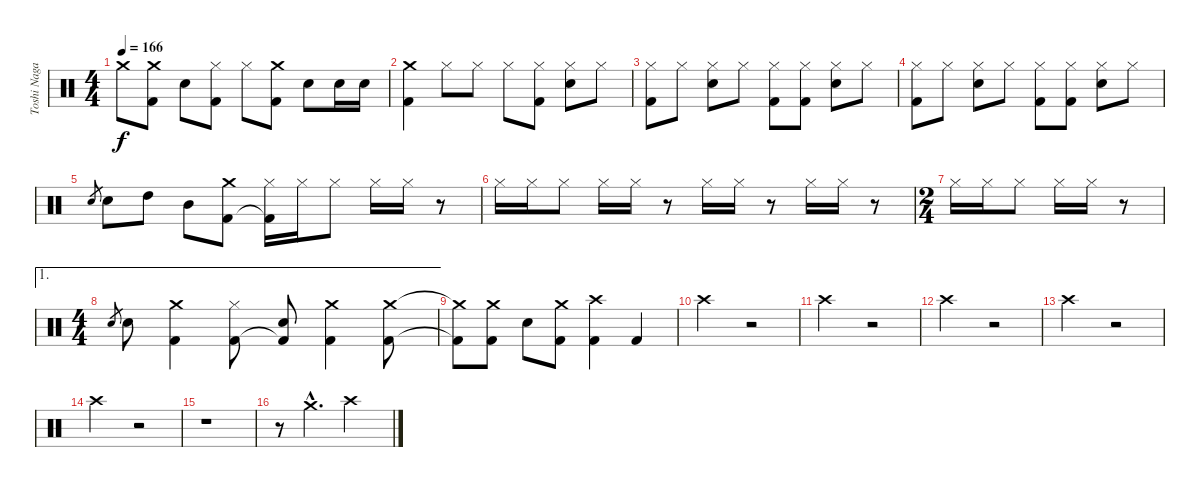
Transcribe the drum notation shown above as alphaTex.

\track ("Toshi Nagai" "Toshi Naga") {instrument percussion}
\staff {score}
\articulation defaults
\ts (4 4)
\tempo 166
\clef neutral
\ks c "Crash medium (hit)"{t}.8{dy f}
("Crash medium (hit)" "Kick (hit) 2").8 "Electric Snare (hit)".8 ("Hi-Hat (closed)" "Kick (hit) 2").8 "Hi-Hat (closed)".8 ("Crash medium (hit)" "Kick (hit) 2").8 "Electric Snare (hit)".8 "Electric Snare (hit)".16 "Electric Snare (hit)".16 |
("Crash medium (hit)" "Kick (hit) 2").4 "Hi-Hat (closed)".8 "Hi-Hat (closed)".8 "Hi-Hat (closed)".8 ("Hi-Hat (closed)" "Kick (hit) 2").8 ("Hi-Hat (closed)" "Electric Snare (hit)").8 "Hi-Hat (closed)".8 |
("Hi-Hat (closed)" "Kick (hit) 2").8 "Hi-Hat (closed)".8 ("Hi-Hat (closed)" "Electric Snare (hit)").8 "Hi-Hat (closed)".8 ("Hi-Hat (closed)" "Kick (hit) 2").8 ("Hi-Hat (closed)" "Kick (hit) 2").8 ("Hi-Hat (closed)" "Electric Snare (hit)").8 "Hi-Hat (closed)".8 |
("Hi-Hat (closed)" "Kick (hit) 2").8 "Hi-Hat (closed)".8 ("Hi-Hat (closed)" "Electric Snare (hit)").8 "Hi-Hat (closed)".8 ("Hi-Hat (closed)" "Kick (hit) 2").8 ("Hi-Hat (closed)" "Kick (hit) 2").8 ("Hi-Hat (closed)" "Electric Snare (hit)").8 "Hi-Hat (closed)".8 |
"Electric Snare (hit)".8{gr} "Electric Snare (hit)".8 "High Tom (hit)".8 "Mid Tom (hit)".8 ("Crash medium (hit)" "Kick (hit) 2").8 ("Hi-Hat (closed)" "Kick (hit) 2"{t}).16 "Hi-Hat (closed)".16 "Hi-Hat (closed)".8 "Hi-Hat (closed)".16 "Hi-Hat (closed)".16 r.8 |
"Hi-Hat (closed)".16 "Hi-Hat (closed)".16 "Hi-Hat (closed)".8 "Hi-Hat (closed)".16 "Hi-Hat (closed)".16 r.8 "Hi-Hat (closed)".16 "Hi-Hat (closed)".16 r.8 "Hi-Hat (closed)".16 "Hi-Hat (closed)".16 r.8 |
\ts (2 4)
"Hi-Hat (closed)".16 "Hi-Hat (closed)".16 "Hi-Hat (closed)".8 "Hi-Hat (closed)".16 "Hi-Hat (closed)".16 r.8 |
\ae 1
\ts (4 4)
"Electric Snare (hit)".8{gr} "Electric Snare (hit)".8 ("Crash medium (hit)" "Kick (hit) 2").4 ("Hi-Hat (closed)" "Kick (hit) 2").8 ("Electric Snare (hit)" "Kick (hit) 2"{t}).8 ("Crash medium (hit)" "Kick (hit) 2").4 ("Crash medium (hit)" "Kick (hit) 2").8 |
("Crash medium (hit)"{t} "Kick (hit) 2"{t}).8 ("Crash medium (hit)" "Kick (hit) 2").8 "Electric Snare (hit)".8 ("Crash medium (hit)" "Kick (hit) 2").8 ("Crash high (hit)" "Kick (hit) 2").4 "Kick (hit) 2".4 |
"Crash high (hit)".2 r.2 |
"Crash high (hit)".2 r.2 |
"Crash high (hit)".2 r.2 |
"Crash high (hit)".2 r.2 |
"Crash high (hit)".2 r.2 |
r.1 |
r.8 "Crash medium (hit)"{hac}.4{d} "Crash high (hit)".2
